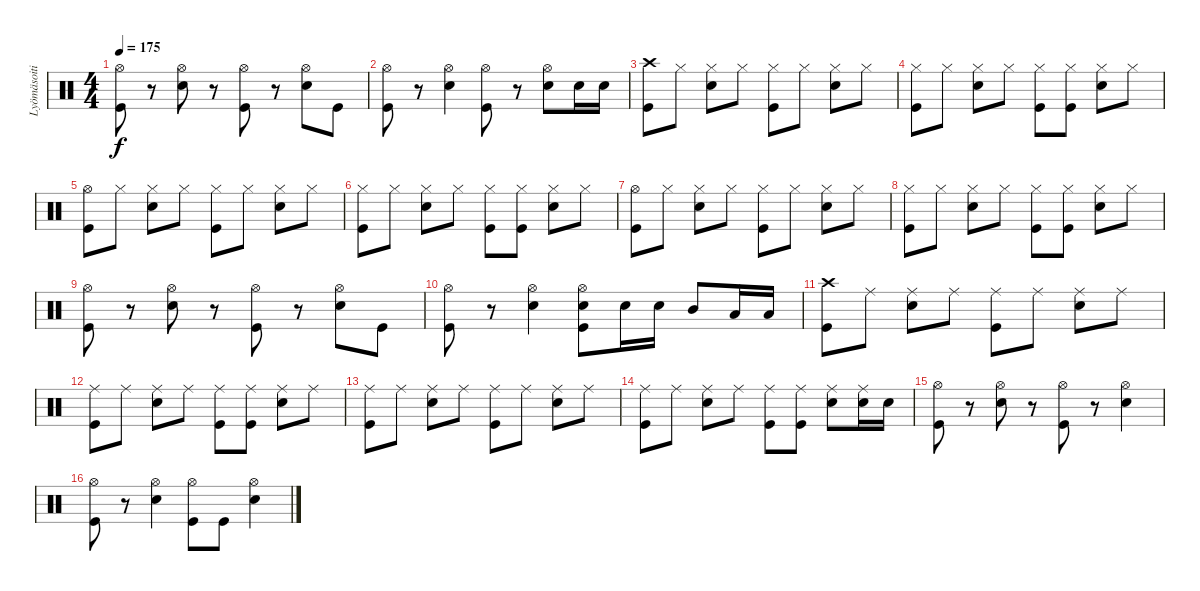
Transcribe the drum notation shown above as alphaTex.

\track ("Lyömäsoitin" "Lyömäsoiti") {instrument percussion}
\staff {score}
\articulation defaults
\ts (4 4)
\tempo 175
\clef neutral
\ks c
("Hi-Hat (open)" "Kick (hit)").8{dy f} r.8 ("Hi-Hat (open)" "Electric Snare (hit)").8 r.8 ("Hi-Hat (open)" "Kick (hit)").8 r.8 ("Hi-Hat (open)" "Electric Snare (hit)").8 "Kick (hit)".8 |
("Hi-Hat (open)" "Kick (hit)").8 r.8 ("Hi-Hat (open)" "Electric Snare (hit)").4 ("Hi-Hat (open)" "Kick (hit)").8 r.8 ("Hi-Hat (open)" "Electric Snare (hit)").8 "Electric Snare (hit)".16 "Electric Snare (hit)".16 |
("Crash high (hit)" "Kick (hit)").8 "Hi-Hat (closed)".8 ("Hi-Hat (closed)" "Electric Snare (hit)").8 "Hi-Hat (closed)".8 ("Hi-Hat (closed)" "Kick (hit)").8 "Hi-Hat (closed)".8 ("Hi-Hat (closed)" "Electric Snare (hit)").8 "Hi-Hat (closed)".8 |
("Hi-Hat (closed)" "Kick (hit)").8 "Hi-Hat (closed)".8 ("Hi-Hat (closed)" "Electric Snare (hit)").8 "Hi-Hat (closed)".8 ("Hi-Hat (closed)" "Kick (hit)").8 ("Hi-Hat (closed)" "Kick (hit)").8 ("Hi-Hat (closed)" "Electric Snare (hit)").8 "Hi-Hat (closed)".8 |
("Hi-Hat (open)" "Kick (hit)").8 "Hi-Hat (closed)".8 ("Hi-Hat (closed)" "Electric Snare (hit)").8 "Hi-Hat (closed)".8 ("Hi-Hat (closed)" "Kick (hit)").8 "Hi-Hat (closed)".8 ("Hi-Hat (closed)" "Electric Snare (hit)").8 "Hi-Hat (closed)".8 |
("Hi-Hat (closed)" "Kick (hit)").8 "Hi-Hat (closed)".8 ("Hi-Hat (closed)" "Electric Snare (hit)").8 "Hi-Hat (closed)".8 ("Hi-Hat (closed)" "Kick (hit)").8 ("Hi-Hat (closed)" "Kick (hit)").8 ("Hi-Hat (closed)" "Electric Snare (hit)").8 "Hi-Hat (closed)".8 |
("Hi-Hat (open)" "Kick (hit)").8 "Hi-Hat (closed)".8 ("Hi-Hat (closed)" "Electric Snare (hit)").8 "Hi-Hat (closed)".8 ("Hi-Hat (closed)" "Kick (hit)").8 "Hi-Hat (closed)".8 ("Hi-Hat (closed)" "Electric Snare (hit)").8 "Hi-Hat (closed)".8 |
("Hi-Hat (closed)" "Kick (hit)").8 "Hi-Hat (closed)".8 ("Hi-Hat (closed)" "Electric Snare (hit)").8 "Hi-Hat (closed)".8 ("Hi-Hat (closed)" "Kick (hit)").8 ("Hi-Hat (closed)" "Kick (hit)").8 ("Hi-Hat (closed)" "Electric Snare (hit)").8 "Hi-Hat (closed)".8 |
("Hi-Hat (open)" "Kick (hit)").8 r.8 ("Hi-Hat (open)" "Electric Snare (hit)").8 r.8 ("Hi-Hat (open)" "Kick (hit)").8 r.8 ("Hi-Hat (open)" "Electric Snare (hit)").8 "Kick (hit)".8 |
("Hi-Hat (open)" "Kick (hit)").8 r.8 ("Hi-Hat (open)" "Electric Snare (hit)").4 ("Hi-Hat (open)" "Electric Snare (hit)" "Kick (hit)").8 "Electric Snare (hit)".16 "Electric Snare (hit)".16 "Mid Tom (hit)".8 "Low Tom (hit)".16 "Low Tom (hit)".16 |
("Crash high (hit)" "Kick (hit)").8 "Ride (middle)".8 ("Ride (middle)" "Electric Snare (hit)").8 "Ride (middle)".8 ("Ride (middle)" "Kick (hit)").8 "Ride (middle)".8 ("Ride (middle)" "Electric Snare (hit)").8 "Ride (middle)".8 |
("Ride (middle)" "Kick (hit)").8 "Ride (middle)".8 ("Ride (middle)" "Electric Snare (hit)").8 "Ride (middle)".8 ("Ride (middle)" "Kick (hit)").8 ("Ride (middle)" "Kick (hit)").8 ("Ride (middle)" "Electric Snare (hit)").8 "Ride (middle)".8 |
("Ride (middle)" "Kick (hit)").8 "Ride (middle)".8 ("Ride (middle)" "Electric Snare (hit)").8 "Ride (middle)".8 ("Ride (middle)" "Kick (hit)").8 "Ride (middle)".8 ("Ride (middle)" "Electric Snare (hit)").8 "Ride (middle)".8 |
("Ride (middle)" "Kick (hit)").8 "Ride (middle)".8 ("Ride (middle)" "Electric Snare (hit)").8 "Ride (middle)".8 ("Ride (middle)" "Kick (hit)").8 ("Ride (middle)" "Kick (hit)").8 ("Ride (middle)" "Electric Snare (hit)").8 ("Ride (middle)" "Electric Snare (hit)").16 "Electric Snare (hit)".16 |
("Hi-Hat (open)" "Kick (hit)").8 r.8 ("Hi-Hat (open)" "Electric Snare (hit)").8 r.8 ("Hi-Hat (open)" "Kick (hit)").8 r.8 ("Hi-Hat (open)" "Electric Snare (hit)").4 |
("Hi-Hat (open)" "Kick (hit)").8 r.8 ("Hi-Hat (open)" "Electric Snare (hit)").4 ("Hi-Hat (open)" "Kick (hit)").8 "Kick (hit)".8 ("Hi-Hat (open)" "Electric Snare (hit)").4
